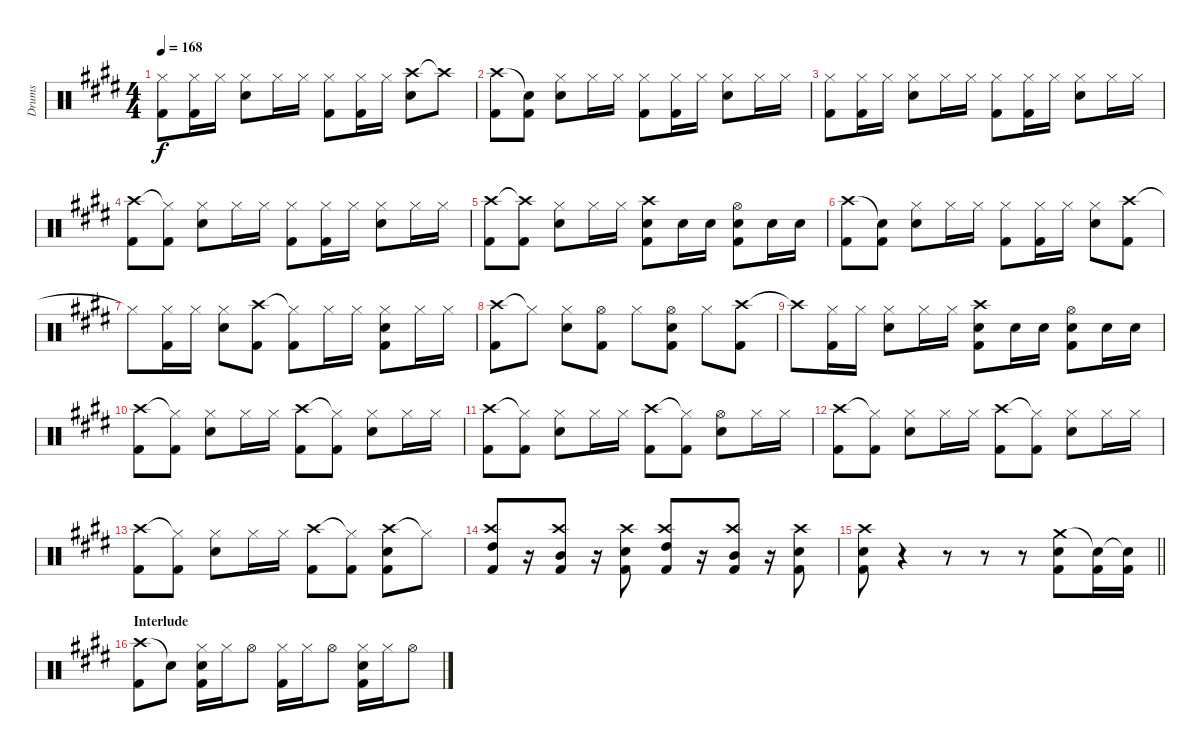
\track ("Drums" "Drums") {instrument percussion}
\staff {score}
\articulation defaults
\ts (4 4)
\tempo 168
\clef neutral
\ks e
("Hi-Hat (closed)" "Kick (hit) 2").8{dy f} ("Hi-Hat (closed)" "Kick (hit) 2").16 "Hi-Hat (closed)".16 ("Hi-Hat (closed)" "Snare (hit) 2").8 "Hi-Hat (closed)".16 "Hi-Hat (closed)".16 ("Hi-Hat (closed)" "Kick (hit) 2").8 ("Hi-Hat (closed)" "Kick (hit) 2").16 "Hi-Hat (closed)".16 ("Crash high (hit)" "Snare (hit) 2").8 "Crash high (hit)"{t}.8 |
("Crash high (hit)" "Kick (hit) 2").8 ("Snare (hit)"{t} "Kick (hit) 2").8 ("Hi-Hat (closed)" "Snare (hit) 2").8 "Hi-Hat (closed)".16 "Hi-Hat (closed)".16 ("Hi-Hat (closed)" "Kick (hit) 2").8 ("Hi-Hat (closed)" "Kick (hit) 2").16 "Hi-Hat (closed)".16 ("Hi-Hat (closed)" "Snare (hit) 2").8 "Hi-Hat (closed)".16 "Hi-Hat (closed)".16 |
("Hi-Hat (closed)" "Kick (hit) 2").8 ("Hi-Hat (closed)" "Kick (hit) 2").16 "Hi-Hat (closed)".16 ("Hi-Hat (closed)" "Snare (hit) 2").8 "Hi-Hat (closed)".16 "Hi-Hat (closed)".16 ("Hi-Hat (closed)" "Kick (hit) 2").8 ("Hi-Hat (closed)" "Kick (hit) 2").16 "Hi-Hat (closed)".16 ("Hi-Hat (closed)" "Snare (hit) 2").8 "Hi-Hat (closed)".16 "Hi-Hat (closed)".16 |
("Crash high (hit)" "Kick (hit) 2").8 ("Hi-Hat (closed)"{t} "Kick (hit) 2").8 ("Hi-Hat (closed)" "Snare (hit) 2").8 "Hi-Hat (closed)".16 "Hi-Hat (closed)".16 ("Hi-Hat (closed)" "Kick (hit) 2").8 ("Hi-Hat (closed)" "Kick (hit) 2").16 "Hi-Hat (closed)".16 ("Hi-Hat (closed)" "Snare (hit) 2").8 "Hi-Hat (closed)".16 "Hi-Hat (closed)".16 |
("Crash high (hit)" "Kick (hit) 2").8 ("Crash high (hit)"{t} "Kick (hit) 2").8 ("Hi-Hat (closed)" "Snare (hit) 2").8 "Hi-Hat (closed)".16 "Hi-Hat (closed)".16 ("Crash high (hit)" "Snare (hit) 2" "Kick (hit) 2").8 "Snare (hit) 2".16 "Snare (hit) 2".16 ("Hi-Hat (open)" "Snare (hit) 2" "Kick (hit) 2").8 "Snare (hit) 2".16 "Snare (hit) 2".16 |
("Crash high (hit)" "Kick (hit) 2").8 ("Snare (hit)"{t} "Kick (hit) 2").8 ("Hi-Hat (closed)" "Snare (hit) 2").8 "Hi-Hat (closed)".16 "Hi-Hat (closed)".16 ("Hi-Hat (closed)" "Kick (hit) 2").8 ("Hi-Hat (closed)" "Kick (hit) 2").16 "Hi-Hat (closed)".16 ("Hi-Hat (closed)" "Snare (hit) 2").8 ("Crash high (hit)" "Kick (hit) 2").8 |
"Hi-Hat (closed)"{t}.8 ("Hi-Hat (closed)" "Kick (hit) 2").16 "Hi-Hat (closed)".16 ("Hi-Hat (closed)" "Snare (hit) 2").8 ("Crash high (hit)" "Kick (hit) 2").8 ("Hi-Hat (closed)"{t} "Kick (hit) 2").8 "Hi-Hat (closed)".16 "Hi-Hat (closed)".16 ("Hi-Hat (closed)" "Snare (hit) 2" "Kick (hit) 2").8 "Hi-Hat (closed)".16 "Hi-Hat (closed)".16 |
("Crash high (hit)" "Kick (hit) 2").8 "Hi-Hat (closed)"{t}.8 ("Hi-Hat (closed)" "Snare (hit) 2").8 ("Hi-Hat (open)" "Kick (hit) 2").8 "Hi-Hat (closed)".8 ("Hi-Hat (open)" "Snare (hit) 2" "Kick (hit) 2").8 "Hi-Hat (closed)".8 ("Crash high (hit)" "Kick (hit) 2").8 |
"Crash high (hit)"{t}.8 ("Hi-Hat (closed)" "Kick (hit) 2").16 "Hi-Hat (closed)".16 ("Hi-Hat (closed)" "Snare (hit) 2").8 "Hi-Hat (closed)".16 "Hi-Hat (closed)".16 ("Crash high (hit)" "Snare (hit) 2" "Kick (hit) 2").8 "Snare (hit) 2".16 "Snare (hit) 2".16 ("Hi-Hat (open)" "Snare (hit) 2" "Kick (hit) 2").8 "Snare (hit) 2".16 "Snare (hit) 2".16 |
("Crash high (hit)" "Kick (hit) 2").8 ("Hi-Hat (closed)"{t} "Kick (hit) 2").8 ("Hi-Hat (closed)" "Snare (hit) 2").8 "Hi-Hat (closed)".16 "Hi-Hat (closed)".16 ("Crash high (hit)" "Kick (hit) 2").8 ("Hi-Hat (closed)"{t} "Kick (hit) 2").8 ("Hi-Hat (closed)" "Snare (hit) 2").8 "Hi-Hat (closed)".16 "Hi-Hat (closed)".16 |
("Crash high (hit)" "Kick (hit) 2").8 ("Hi-Hat (closed)"{t} "Kick (hit) 2").8 ("Hi-Hat (closed)" "Snare (hit) 2").8 "Hi-Hat (closed)".16 "Hi-Hat (closed)".16 ("Crash high (hit)" "Kick (hit) 2").8 ("Hi-Hat (closed)"{t} "Kick (hit) 2").8 ("Hi-Hat (open)" "Snare (hit) 2").8 "Hi-Hat (closed)".16 "Hi-Hat (closed)".16 |
("Crash high (hit)" "Kick (hit) 2").8 ("Hi-Hat (closed)"{t} "Kick (hit) 2").8 ("Hi-Hat (closed)" "Snare (hit) 2").8 "Hi-Hat (closed)".16 "Hi-Hat (closed)".16 ("Crash high (hit)" "Kick (hit) 2").8 ("Hi-Hat (closed)"{t} "Kick (hit) 2").8 ("Hi-Hat (closed)" "Snare (hit) 2").8 "Hi-Hat (closed)".16 "Hi-Hat (closed)".16 |
("Crash high (hit)" "Kick (hit) 2").8 ("Hi-Hat (closed)"{t} "Kick (hit) 2").8 ("Hi-Hat (closed)" "Snare (hit) 2").8 "Hi-Hat (closed)".16 "Hi-Hat (closed)".16 ("Crash high (hit)" "Kick (hit) 2").8 ("Hi-Hat (closed)"{t} "Kick (hit) 2").8 ("Crash high (hit)" "Snare (hit) 2" "Kick (hit) 2").8 "Hi-Hat (closed)"{t}.8 |
("Crash high (hit)" "High Tom (hit)" "Kick (hit) 2").8 r.16 ("Crash high (hit)" "Mid Tom (hit)" "Kick (hit) 2").8 r.16 ("Crash high (hit)" "Snare (hit) 2" "Kick (hit) 2").8 ("Crash high (hit)" "High Tom (hit)" "Kick (hit) 2").8 r.16 ("Crash high (hit)" "Mid Tom (hit)" "Kick (hit) 2").8 r.16 ("Crash high (hit)" "Snare (hit) 2" "Kick (hit) 2").8 |
\barLineRight lightlight
("Crash high (hit)" "Snare (hit) 2" "Kick (hit) 2").8 r.4 r.8 r.8 r.8 ("Crash medium (hit)" "Snare (hit) 2" "Kick (hit) 2").8 ("Snare (hit)"{t} "Kick (hit) 2").16 ("Snare (hit)"{t} "Kick (hit) 2").16 |
\section ("" "Interlude")
("Crash high (hit)" "Kick (hit) 2").8 "Snare (hit)"{t}.8 ("Hi-Hat (closed)" "Snare (hit) 2" "Kick (hit) 2").16 "Hi-Hat (closed)".16 "Hi-Hat (open)".8 ("Hi-Hat (closed)" "Kick (hit) 2").16 "Hi-Hat (closed)".16 "Hi-Hat (open)".8 ("Hi-Hat (closed)" "Snare (hit) 2" "Kick (hit) 2").16 "Hi-Hat (closed)".16 "Hi-Hat (open)".8
